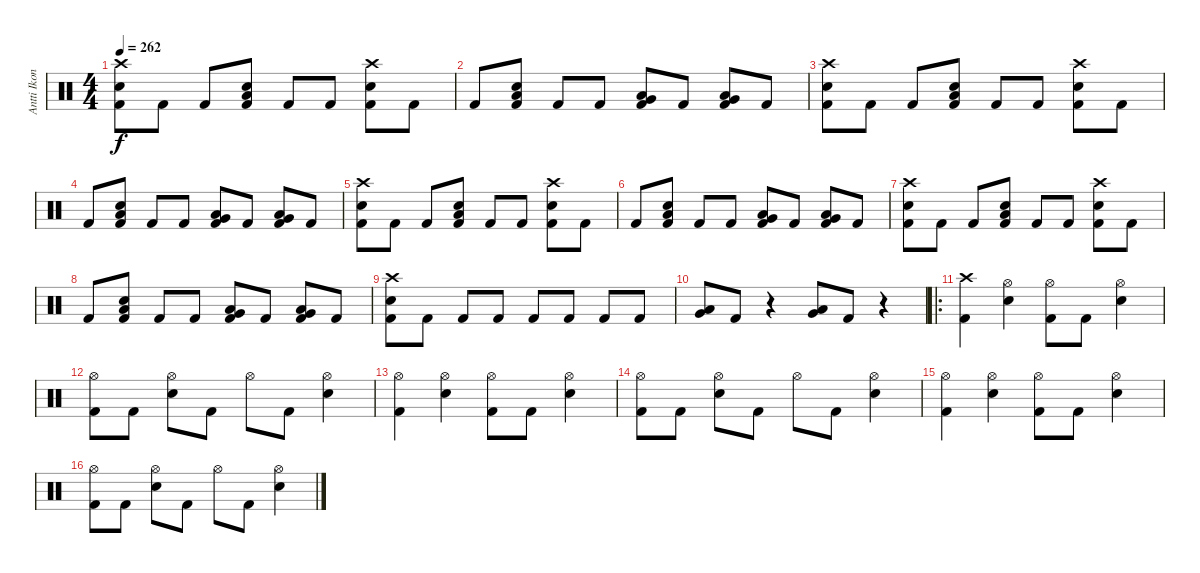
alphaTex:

\track ("Antti Ikonen" "Antti Ikon") {instrument percussion}
\staff {score}
\articulation defaults
\ts (4 4)
\tempo 262
\clef neutral
\ks c
("Crash high (hit)" "Electric Snare (hit)" "Kick (hit) 2").8{dy f} "Kick (hit) 2".8 "Kick (hit) 2".8 ("Electric Snare (hit)" "Low Tom (hit)" "Kick (hit) 2").8 "Kick (hit) 2".8 "Kick (hit) 2".8 ("Crash high (hit)" "Electric Snare (hit)" "Kick (hit) 2").8 "Kick (hit) 2".8 |
"Kick (hit) 2".8 ("Electric Snare (hit)" "Low Tom (hit)" "Kick (hit) 2").8 "Kick (hit) 2".8 "Kick (hit) 2".8 ("Low Tom (hit)" "Very Low Tom (hit)" "Kick (hit) 2").8 "Kick (hit) 2".8 ("Very Low Tom (hit)" "Low Floor Tom (hit)" "Kick (hit) 2").8 "Kick (hit) 2".8 |
("Crash high (hit)" "Electric Snare (hit)" "Kick (hit) 2").8 "Kick (hit) 2".8 "Kick (hit) 2".8 ("Electric Snare (hit)" "Low Tom (hit)" "Kick (hit) 2").8 "Kick (hit) 2".8 "Kick (hit) 2".8 ("Crash high (hit)" "Electric Snare (hit)" "Kick (hit) 2").8 "Kick (hit) 2".8 |
"Kick (hit) 2".8 ("Electric Snare (hit)" "Low Tom (hit)" "Kick (hit) 2").8 "Kick (hit) 2".8 "Kick (hit) 2".8 ("Low Tom (hit)" "Very Low Tom (hit)" "Kick (hit) 2").8 "Kick (hit) 2".8 ("Very Low Tom (hit)" "Low Floor Tom (hit)" "Kick (hit) 2").8 "Kick (hit) 2".8 |
("Crash high (hit)" "Electric Snare (hit)" "Kick (hit) 2").8 "Kick (hit) 2".8 "Kick (hit) 2".8 ("Electric Snare (hit)" "Low Tom (hit)" "Kick (hit) 2").8 "Kick (hit) 2".8 "Kick (hit) 2".8 ("Crash high (hit)" "Electric Snare (hit)" "Kick (hit) 2").8 "Kick (hit) 2".8 |
"Kick (hit) 2".8 ("Electric Snare (hit)" "Low Tom (hit)" "Kick (hit) 2").8 "Kick (hit) 2".8 "Kick (hit) 2".8 ("Low Tom (hit)" "Very Low Tom (hit)" "Kick (hit) 2").8 "Kick (hit) 2".8 ("Very Low Tom (hit)" "Low Floor Tom (hit)" "Kick (hit) 2").8 "Kick (hit) 2".8 |
("Crash high (hit)" "Electric Snare (hit)" "Kick (hit) 2").8 "Kick (hit) 2".8 "Kick (hit) 2".8 ("Electric Snare (hit)" "Low Tom (hit)" "Kick (hit) 2").8 "Kick (hit) 2".8 "Kick (hit) 2".8 ("Crash high (hit)" "Electric Snare (hit)" "Kick (hit) 2").8 "Kick (hit) 2".8 |
"Kick (hit) 2".8 ("Electric Snare (hit)" "Low Tom (hit)" "Kick (hit) 2").8 "Kick (hit) 2".8 "Kick (hit) 2".8 ("Low Tom (hit)" "Very Low Tom (hit)" "Kick (hit) 2").8 "Kick (hit) 2".8 ("Very Low Tom (hit)" "Low Floor Tom (hit)" "Kick (hit) 2").8 "Kick (hit) 2".8 |
("Crash high (hit)" "Electric Snare (hit)" "Kick (hit) 2").8 "Kick (hit) 2".8 "Kick (hit) 2".8 "Kick (hit) 2".8 "Kick (hit) 2".8 "Kick (hit) 2".8 "Kick (hit) 2".8 "Kick (hit) 2".8 |
("Low Tom (hit)" "Very Low Tom (hit)").8 "Kick (hit) 2".8 r.4 ("Low Tom (hit)" "Very Low Tom (hit)").8 "Kick (hit) 2".8 r.4 |
\ro
("Crash high (hit)" "Kick (hit) 2").4 ("Hi-Hat (open)" "Electric Snare (hit)").4 ("Hi-Hat (open)" "Kick (hit) 2").8 "Kick (hit) 2".8 ("Hi-Hat (open)" "Electric Snare (hit)").4 |
("Hi-Hat (open)" "Kick (hit) 2").8 "Kick (hit) 2".8 ("Hi-Hat (open)" "Electric Snare (hit)").8 "Kick (hit) 2".8 "Hi-Hat (open)".8 "Kick (hit) 2".8 ("Hi-Hat (open)" "Electric Snare (hit)").4 |
("Hi-Hat (open)" "Kick (hit) 2").4 ("Hi-Hat (open)" "Electric Snare (hit)").4 ("Hi-Hat (open)" "Kick (hit) 2").8 "Kick (hit) 2".8 ("Hi-Hat (open)" "Electric Snare (hit)").4 |
("Hi-Hat (open)" "Kick (hit) 2").8 "Kick (hit) 2".8 ("Hi-Hat (open)" "Electric Snare (hit)").8 "Kick (hit) 2".8 "Hi-Hat (open)".8 "Kick (hit) 2".8 ("Hi-Hat (open)" "Electric Snare (hit)").4 |
("Hi-Hat (open)" "Kick (hit) 2").4 ("Hi-Hat (open)" "Electric Snare (hit)").4 ("Hi-Hat (open)" "Kick (hit) 2").8 "Kick (hit) 2".8 ("Hi-Hat (open)" "Electric Snare (hit)").4 |
("Hi-Hat (open)" "Kick (hit) 2").8 "Kick (hit) 2".8 ("Hi-Hat (open)" "Electric Snare (hit)").8 "Kick (hit) 2".8 "Hi-Hat (open)".8 "Kick (hit) 2".8 ("Hi-Hat (open)" "Electric Snare (hit)").4
